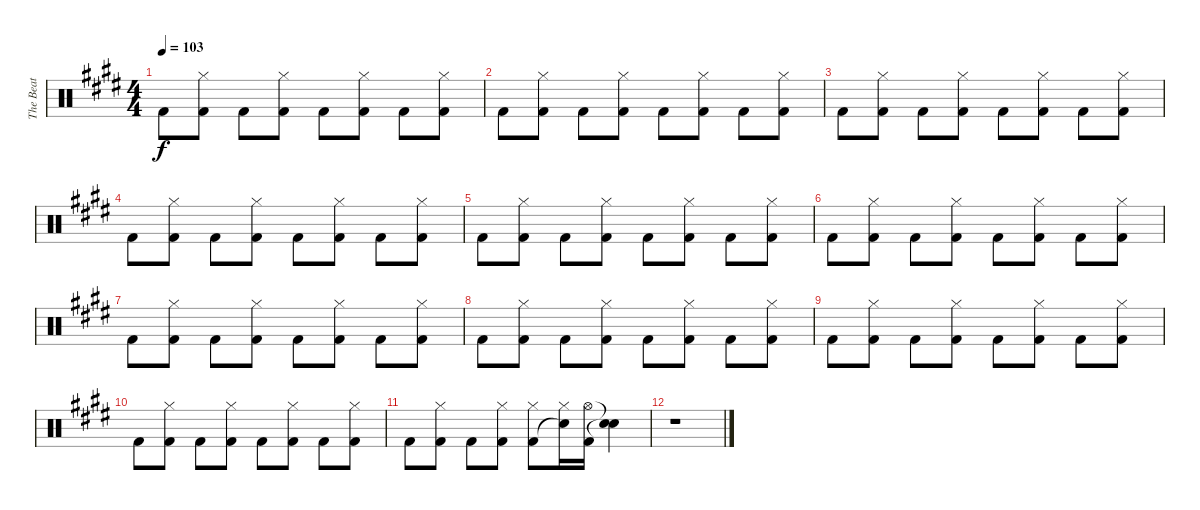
\track ("The Beat" "The Beat") {instrument percussion}
\staff {score}
\articulation defaults
\ts (4 4)
\tempo 103
\clef neutral
\ks e "Kick (hit) 2".8{dy f}
("Hi-Hat (closed)" "Kick (hit) 2").8 "Kick (hit) 2".8 ("Hi-Hat (closed)" "Kick (hit) 2").8 "Kick (hit) 2".8 ("Hi-Hat (closed)" "Kick (hit) 2").8 "Kick (hit) 2".8 ("Hi-Hat (closed)" "Kick (hit) 2").8 |
"Kick (hit) 2".8 ("Hi-Hat (closed)" "Kick (hit) 2").8 "Kick (hit) 2".8 ("Hi-Hat (closed)" "Kick (hit) 2").8 "Kick (hit) 2".8 ("Hi-Hat (closed)" "Kick (hit) 2").8 "Kick (hit) 2".8 ("Hi-Hat (closed)" "Kick (hit) 2").8 |
"Kick (hit) 2".8 ("Hi-Hat (closed)" "Kick (hit) 2").8 "Kick (hit) 2".8 ("Hi-Hat (closed)" "Kick (hit) 2").8 "Kick (hit) 2".8 ("Hi-Hat (closed)" "Kick (hit) 2").8 "Kick (hit) 2".8 ("Hi-Hat (closed)" "Kick (hit) 2").8 |
"Kick (hit) 2".8 ("Hi-Hat (closed)" "Kick (hit) 2").8 "Kick (hit) 2".8 ("Hi-Hat (closed)" "Kick (hit) 2").8 "Kick (hit) 2".8 ("Hi-Hat (closed)" "Kick (hit) 2").8 "Kick (hit) 2".8 ("Hi-Hat (closed)" "Kick (hit) 2").8 |
"Kick (hit) 2".8 ("Hi-Hat (closed)" "Kick (hit) 2").8 "Kick (hit) 2".8 ("Hi-Hat (closed)" "Kick (hit) 2").8 "Kick (hit) 2".8 ("Hi-Hat (closed)" "Kick (hit) 2").8 "Kick (hit) 2".8 ("Hi-Hat (closed)" "Kick (hit) 2").8 |
"Kick (hit) 2".8 ("Hi-Hat (closed)" "Kick (hit) 2").8 "Kick (hit) 2".8 ("Hi-Hat (closed)" "Kick (hit) 2").8 "Kick (hit) 2".8 ("Hi-Hat (closed)" "Kick (hit) 2").8 "Kick (hit) 2".8 ("Hi-Hat (closed)" "Kick (hit) 2").8 |
"Kick (hit) 2".8 ("Hi-Hat (closed)" "Kick (hit) 2").8 "Kick (hit) 2".8 ("Hi-Hat (closed)" "Kick (hit) 2").8 "Kick (hit) 2".8 ("Hi-Hat (closed)" "Kick (hit) 2").8 "Kick (hit) 2".8 ("Hi-Hat (closed)" "Kick (hit) 2").8 |
"Kick (hit) 2".8 ("Hi-Hat (closed)" "Kick (hit) 2").8 "Kick (hit) 2".8 ("Hi-Hat (closed)" "Kick (hit) 2").8 "Kick (hit) 2".8 ("Hi-Hat (closed)" "Kick (hit) 2").8 "Kick (hit) 2".8 ("Hi-Hat (closed)" "Kick (hit) 2").8 |
"Kick (hit) 2".8 ("Hi-Hat (closed)" "Kick (hit) 2").8 "Kick (hit) 2".8 ("Hi-Hat (closed)" "Kick (hit) 2").8 "Kick (hit) 2".8 ("Hi-Hat (closed)" "Kick (hit) 2").8 "Kick (hit) 2".8 ("Hi-Hat (closed)" "Kick (hit) 2").8 |
"Kick (hit) 2".8 ("Hi-Hat (closed)" "Kick (hit) 2").8 "Kick (hit) 2".8 ("Hi-Hat (closed)" "Kick (hit) 2").8 "Kick (hit) 2".8 ("Hi-Hat (closed)" "Kick (hit) 2").8 "Kick (hit) 2".8 ("Hi-Hat (closed)" "Kick (hit) 2").8 |
"Kick (hit) 2".8 ("Hi-Hat (closed)" "Kick (hit) 2").8 "Kick (hit) 2".8 ("Hi-Hat (closed)" "Kick (hit) 2").8 ("Hi-Hat (closed)" "Kick (hit) 2").8 ("Hi-Hat (closed)" "Snare (hit)"{t}).16 ("Hi-Hat (open)" "Kick (hit) 2").16 ("Snare (hit)"{t} "Snare (hit)"{t}).4 |
r.1
